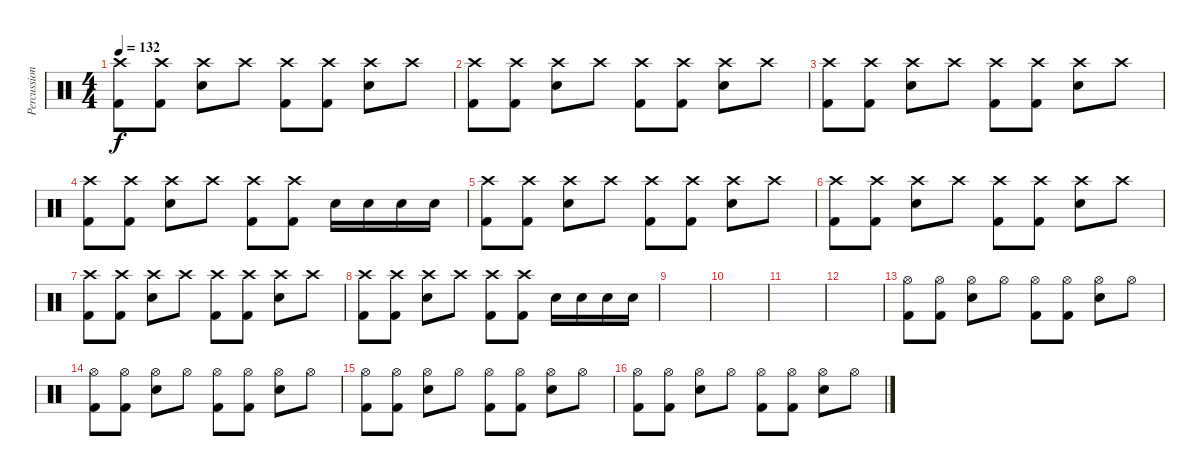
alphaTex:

\track ("Percussion" "Percussion") {instrument percussion}
\staff {score}
\articulation defaults
\ts (4 4)
\tempo 132
\clef neutral
\ks c
("Crash high (hit)" "Kick (hit) 2").8{dy f} ("Crash high (hit)" "Kick (hit) 2").8 ("Crash high (hit)" "Electric Snare (hit)").8 "Crash high (hit)".8 ("Crash high (hit)" "Kick (hit) 2").8 ("Crash high (hit)" "Kick (hit) 2").8 ("Crash high (hit)" "Electric Snare (hit)").8 "Crash high (hit)".8 |
("Crash high (hit)" "Kick (hit) 2").8 ("Crash high (hit)" "Kick (hit) 2").8 ("Crash high (hit)" "Electric Snare (hit)").8 "Crash high (hit)".8 ("Crash high (hit)" "Kick (hit) 2").8 ("Crash high (hit)" "Kick (hit) 2").8 ("Crash high (hit)" "Electric Snare (hit)").8 "Crash high (hit)".8 |
("Crash high (hit)" "Kick (hit) 2").8 ("Crash high (hit)" "Kick (hit) 2").8 ("Crash high (hit)" "Electric Snare (hit)").8 "Crash high (hit)".8 ("Crash high (hit)" "Kick (hit) 2").8 ("Crash high (hit)" "Kick (hit) 2").8 ("Crash high (hit)" "Electric Snare (hit)").8 "Crash high (hit)".8 |
("Crash high (hit)" "Kick (hit) 2").8 ("Crash high (hit)" "Kick (hit) 2").8 ("Crash high (hit)" "Electric Snare (hit)").8 "Crash high (hit)".8 ("Crash high (hit)" "Kick (hit) 2").8 ("Crash high (hit)" "Kick (hit) 2").8 "Electric Snare (hit)".16 "Electric Snare (hit)".16 "Electric Snare (hit)".16 "Electric Snare (hit)".16 |
("Crash high (hit)" "Kick (hit) 2").8 ("Crash high (hit)" "Kick (hit) 2").8 ("Crash high (hit)" "Electric Snare (hit)").8 "Crash high (hit)".8 ("Crash high (hit)" "Kick (hit) 2").8 ("Crash high (hit)" "Kick (hit) 2").8 ("Crash high (hit)" "Electric Snare (hit)").8 "Crash high (hit)".8 |
("Crash high (hit)" "Kick (hit) 2").8 ("Crash high (hit)" "Kick (hit) 2").8 ("Crash high (hit)" "Electric Snare (hit)").8 "Crash high (hit)".8 ("Crash high (hit)" "Kick (hit) 2").8 ("Crash high (hit)" "Kick (hit) 2").8 ("Crash high (hit)" "Electric Snare (hit)").8 "Crash high (hit)".8 |
("Crash high (hit)" "Kick (hit) 2").8 ("Crash high (hit)" "Kick (hit) 2").8 ("Crash high (hit)" "Electric Snare (hit)").8 "Crash high (hit)".8 ("Crash high (hit)" "Kick (hit) 2").8 ("Crash high (hit)" "Kick (hit) 2").8 ("Crash high (hit)" "Electric Snare (hit)").8 "Crash high (hit)".8 |
("Crash high (hit)" "Kick (hit) 2").8 ("Crash high (hit)" "Kick (hit) 2").8 ("Crash high (hit)" "Electric Snare (hit)").8 "Crash high (hit)".8 ("Crash high (hit)" "Kick (hit) 2").8 ("Crash high (hit)" "Kick (hit) 2").8 "Electric Snare (hit)".16 "Electric Snare (hit)".16 "Electric Snare (hit)".16 "Electric Snare (hit)".16 |
|
|
|
|
("Hi-Hat (open)" "Kick (hit) 2").8 ("Hi-Hat (open)" "Kick (hit) 2").8 ("Hi-Hat (open)" "Electric Snare (hit)").8 "Hi-Hat (open)".8 ("Hi-Hat (open)" "Kick (hit) 2").8 ("Hi-Hat (open)" "Kick (hit) 2").8 ("Hi-Hat (open)" "Electric Snare (hit)").8 "Hi-Hat (open)".8 |
("Hi-Hat (open)" "Kick (hit) 2").8 ("Hi-Hat (open)" "Kick (hit) 2").8 ("Hi-Hat (open)" "Electric Snare (hit)").8 "Hi-Hat (open)".8 ("Hi-Hat (open)" "Kick (hit) 2").8 ("Hi-Hat (open)" "Kick (hit) 2").8 ("Hi-Hat (open)" "Electric Snare (hit)").8 "Hi-Hat (open)".8 |
("Hi-Hat (open)" "Kick (hit) 2").8 ("Hi-Hat (open)" "Kick (hit) 2").8 ("Hi-Hat (open)" "Electric Snare (hit)").8 "Hi-Hat (open)".8 ("Hi-Hat (open)" "Kick (hit) 2").8 ("Hi-Hat (open)" "Kick (hit) 2").8 ("Hi-Hat (open)" "Electric Snare (hit)").8 "Hi-Hat (open)".8 |
("Hi-Hat (open)" "Kick (hit) 2").8 ("Hi-Hat (open)" "Kick (hit) 2").8 ("Hi-Hat (open)" "Electric Snare (hit)").8 "Hi-Hat (open)".8 ("Hi-Hat (open)" "Kick (hit) 2").8 ("Hi-Hat (open)" "Kick (hit) 2").8 ("Hi-Hat (open)" "Electric Snare (hit)").8 "Hi-Hat (open)".8
